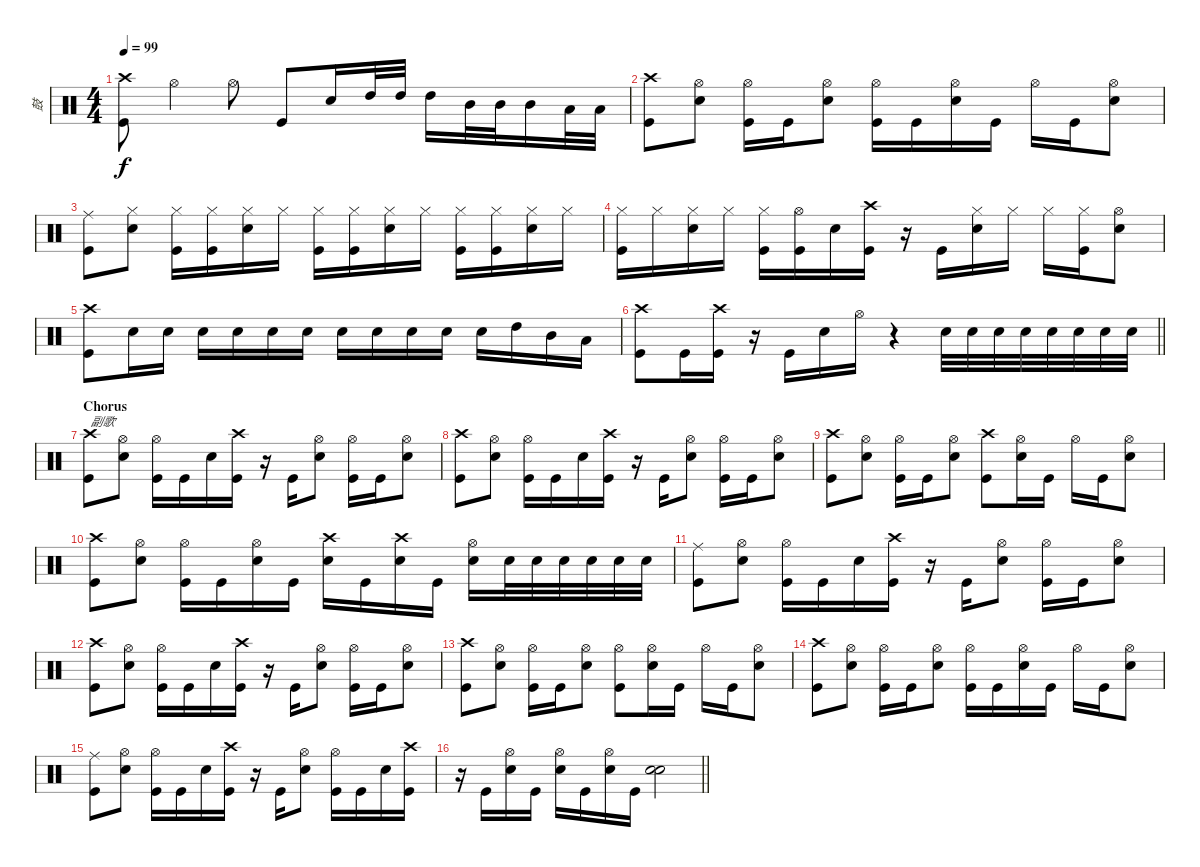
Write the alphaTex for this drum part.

\track ("鼓" "鼓") {instrument percussion}
\staff {score}
\articulation defaults
\ts (4 4)
\tempo 99
\clef neutral
\ks c
("Crash high (hit)" "Kick (hit)").8{dy f} "Hi-Hat (open)".4 "Hi-Hat (open)".8 "Kick (hit)".8 "Snare (hit) 2".16 "High Tom (hit)".32 "High Tom (hit)".32 "High Tom (hit)".16 "Mid Tom (hit)".32 "Mid Tom (hit)".32 "Mid Tom (hit)".16 "Low Tom (hit)".32 "Low Tom (hit)".32 |
("Crash high (hit)" "Kick (hit)").8 ("Snare (hit) 2" "Hi-Hat (open)").8 ("Kick (hit)" "Hi-Hat (open)").16 "Kick (hit)".16 ("Snare (hit) 2" "Hi-Hat (open)").8 ("Kick (hit)" "Hi-Hat (open)").16 "Kick (hit)".16 ("Snare (hit) 2" "Hi-Hat (open)").16 "Kick (hit)".16 "Hi-Hat (open)".16 "Kick (hit)".16 ("Snare (hit) 2" "Hi-Hat (open)").8 |
("Ride (middle)" "Kick (hit)").8 ("Snare (hit) 2" "Hi-Hat (closed)").8 ("Kick (hit)" "Hi-Hat (closed)").16 ("Hi-Hat (closed)" "Kick (hit)").16 ("Hi-Hat (closed)" "Snare (hit) 2").16 "Hi-Hat (closed)".16 ("Kick (hit)" "Hi-Hat (closed)").16 ("Kick (hit)" "Hi-Hat (closed)").16 ("Hi-Hat (closed)" "Snare (hit) 2").16 "Hi-Hat (closed)".16 ("Kick (hit)" "Hi-Hat (closed)").16 ("Kick (hit)" "Hi-Hat (closed)").16 ("Hi-Hat (closed)" "Snare (hit) 2").16 "Hi-Hat (closed)".16 |
("Hi-Hat (closed)" "Kick (hit)").16 "Hi-Hat (closed)".16 ("Snare (hit) 2" "Hi-Hat (closed)").16 "Hi-Hat (closed)".16 ("Kick (hit)" "Hi-Hat (closed)").16 ("Kick (hit)" "Hi-Hat (open)").16 "Snare (hit) 2".16 ("Crash high (hit)" "Kick (hit)").16 r.16 "Kick (hit)".16 ("Snare (hit) 2" "Hi-Hat (closed)").16 "Hi-Hat (closed)".16 "Hi-Hat (closed)".16 ("Kick (hit)" "Hi-Hat (closed)").16 ("Snare (hit) 2" "Hi-Hat (open)").8 |
("Crash high (hit)" "Kick (hit)").8 "Snare (hit) 2".16 "Snare (hit) 2".16 "Snare (hit) 2".16 "Snare (hit) 2".16 "Snare (hit) 2".16 "Snare (hit) 2".16 "Snare (hit) 2".16 "Snare (hit) 2".16 "Snare (hit) 2".16 "Snare (hit) 2".16 "Snare (hit) 2".16 "High Tom (hit)".16 "Mid Tom (hit)".16 "Low Tom (hit)".16 |
\barLineRight lightlight
("Crash high (hit)" "Kick (hit)").8 "Kick (hit)".16 ("Kick (hit)" "Crash high (hit)").16 r.16 "Kick (hit)".16 "Snare (hit) 2".16 "Hi-Hat (open)".16 r.4 "Snare (hit) 2".32 "Snare (hit) 2".32 "Snare (hit) 2".32 "Snare (hit) 2".32 "Snare (hit) 2".32 "Snare (hit) 2".32 "Snare (hit) 2".32 "Snare (hit) 2".32 |
\section ("" "Chorus")
("Crash high (hit)" "Kick (hit)").8{txt "副歌"} ("Snare (hit) 2" "Hi-Hat (open)").8 ("Kick (hit)" "Hi-Hat (open)").16 "Kick (hit)".16 "Snare (hit) 2".16 ("Crash high (hit)" "Kick (hit)").16 r.16 "Kick (hit)".16 ("Hi-Hat (open)" "Snare (hit) 2").8 ("Kick (hit)" "Hi-Hat (open)").16 "Kick (hit)".16 ("Snare (hit) 2" "Hi-Hat (open)").8 |
("Crash high (hit)" "Kick (hit)").8 ("Snare (hit) 2" "Hi-Hat (open)").8 ("Kick (hit)" "Hi-Hat (open)").16 "Kick (hit)".16 "Snare (hit) 2".16 ("Crash high (hit)" "Kick (hit)").16 r.16 "Kick (hit)".16 ("Hi-Hat (open)" "Snare (hit) 2").8 ("Kick (hit)" "Hi-Hat (open)").16 "Kick (hit)".16 ("Snare (hit) 2" "Hi-Hat (open)").8 |
("Crash high (hit)" "Kick (hit)").8 ("Snare (hit) 2" "Hi-Hat (open)").8 ("Kick (hit)" "Hi-Hat (open)").16 "Kick (hit)".16 ("Snare (hit) 2" "Hi-Hat (open)").8 ("Crash high (hit)" "Kick (hit)").8 ("Snare (hit) 2" "Hi-Hat (open)").16 "Kick (hit)".16 "Hi-Hat (open)".16 "Kick (hit)".16 ("Snare (hit) 2" "Hi-Hat (open)").8 |
("Crash high (hit)" "Kick (hit)").8 ("Snare (hit) 2" "Hi-Hat (open)").8 ("Kick (hit)" "Hi-Hat (open)").16 "Kick (hit)".16 ("Snare (hit) 2" "Hi-Hat (open)").16 "Kick (hit)".16 ("Crash high (hit)" "Snare (hit) 2").16 "Kick (hit)".16 ("Snare (hit) 2" "Crash high (hit)").16 "Kick (hit)".16 ("Snare (hit) 2" "Hi-Hat (open)").16 "Snare (hit) 2".32 "Snare (hit) 2".32 "Snare (hit) 2".32 "Snare (hit) 2".32 "Snare (hit) 2".32 "Snare (hit) 2".32 |
("Ride (middle)" "Kick (hit)").8 ("Snare (hit) 2" "Hi-Hat (open)").8 ("Kick (hit)" "Hi-Hat (open)").16 "Kick (hit)".16 "Snare (hit) 2".16 ("Crash high (hit)" "Kick (hit)").16 r.16 "Kick (hit)".16 ("Hi-Hat (open)" "Snare (hit) 2").8 ("Kick (hit)" "Hi-Hat (open)").16 "Kick (hit)".16 ("Snare (hit) 2" "Hi-Hat (open)").8 |
("Crash high (hit)" "Kick (hit)").8 ("Snare (hit) 2" "Hi-Hat (open)").8 ("Kick (hit)" "Hi-Hat (open)").16 "Kick (hit)".16 "Snare (hit) 2".16 ("Crash high (hit)" "Kick (hit)").16 r.16 "Kick (hit)".16 ("Hi-Hat (open)" "Snare (hit) 2").8 ("Kick (hit)" "Hi-Hat (open)").16 "Kick (hit)".16 ("Snare (hit) 2" "Hi-Hat (open)").8 |
("Crash high (hit)" "Kick (hit)").8 ("Snare (hit) 2" "Hi-Hat (open)").8 ("Kick (hit)" "Hi-Hat (open)").16 "Kick (hit)".16 ("Snare (hit) 2" "Hi-Hat (open)").8 ("Hi-Hat (open)" "Kick (hit)").8 ("Snare (hit) 2" "Hi-Hat (open)").16 "Kick (hit)".16 "Hi-Hat (open)".16 "Kick (hit)".16 ("Snare (hit) 2" "Hi-Hat (open)").8 |
("Crash high (hit)" "Kick (hit)").8 ("Snare (hit) 2" "Hi-Hat (open)").8 ("Kick (hit)" "Hi-Hat (open)").16 "Kick (hit)".16 ("Snare (hit) 2" "Hi-Hat (open)").8 ("Hi-Hat (open)" "Kick (hit)").16 "Kick (hit)".16 ("Snare (hit) 2" "Hi-Hat (open)").16 "Kick (hit)".16 "Hi-Hat (open)".16 "Kick (hit)".16 ("Snare (hit) 2" "Hi-Hat (open)").8 |
("Ride (middle)" "Kick (hit)").8 ("Snare (hit) 2" "Hi-Hat (open)").8 ("Kick (hit)" "Hi-Hat (open)").16 "Kick (hit)".16 "Snare (hit) 2".16 ("Kick (hit)" "Crash high (hit)").16 r.16 "Kick (hit)".16 ("Hi-Hat (open)" "Snare (hit) 2").8 ("Kick (hit)" "Hi-Hat (open)").16 "Kick (hit)".16 "Snare (hit) 2".16 ("Kick (hit)" "Crash high (hit)").16 |
\barLineRight lightlight
r.16 "Kick (hit)".16 ("Snare (hit) 2" "Hi-Hat (open)").16 "Kick (hit)".16 ("Snare (hit) 2" "Hi-Hat (open)").16 "Kick (hit)".16 ("Snare (hit) 2" "Hi-Hat (open)").16 "Kick (hit)".16 ("Snare (hit) 2" "Snare (hit) 2").2
